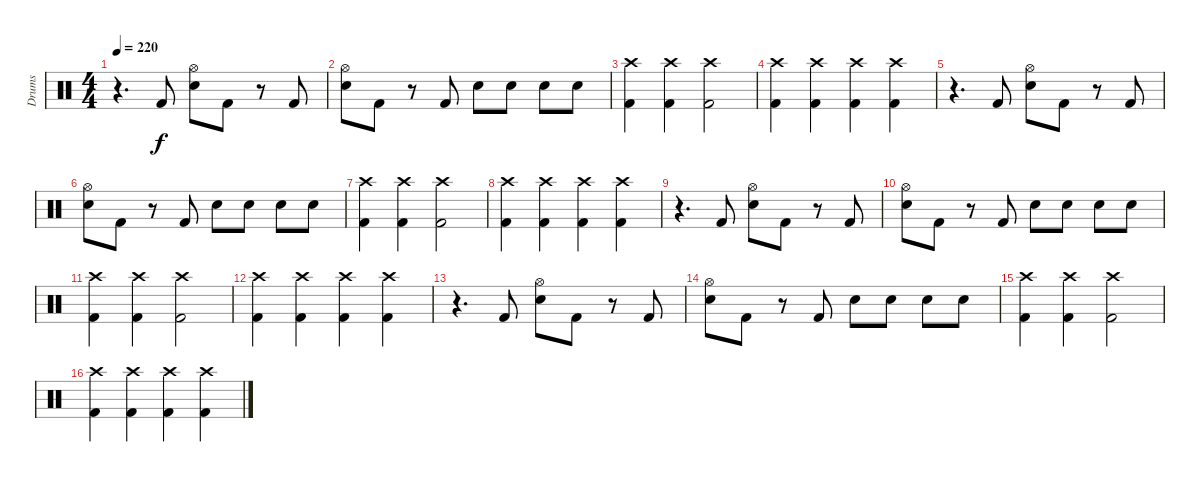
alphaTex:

\track ("Drums" "Drums") {instrument percussion}
\staff {score}
\articulation defaults
\ts (4 4)
\tempo 220
\clef neutral
\ks c
r.4{d dy f} "Kick (hit) 2".8 ("Hi-Hat (open)" "Electric Snare (hit)").8 "Kick (hit) 2".8 r.8 "Kick (hit) 2".8 |
("Hi-Hat (open)" "Electric Snare (hit)").8 "Kick (hit) 2".8 r.8 "Kick (hit) 2".8 "Electric Snare (hit)".8 "Electric Snare (hit)".8 "Electric Snare (hit)".8 "Electric Snare (hit)".8 |
("Crash high (hit)" "Kick (hit) 2").4 ("Crash high (hit)" "Kick (hit) 2").4 ("Crash high (hit)" "Kick (hit) 2").2 |
("Crash high (hit)" "Kick (hit) 2").4 ("Crash high (hit)" "Kick (hit) 2").4 ("Crash high (hit)" "Kick (hit) 2").4 ("Crash high (hit)" "Kick (hit) 2").4 |
r.4{d} "Kick (hit) 2".8 ("Hi-Hat (open)" "Electric Snare (hit)").8 "Kick (hit) 2".8 r.8 "Kick (hit) 2".8 |
("Hi-Hat (open)" "Electric Snare (hit)").8 "Kick (hit) 2".8 r.8 "Kick (hit) 2".8 "Electric Snare (hit)".8 "Electric Snare (hit)".8 "Electric Snare (hit)".8 "Electric Snare (hit)".8 |
("Crash high (hit)" "Kick (hit) 2").4 ("Crash high (hit)" "Kick (hit) 2").4 ("Crash high (hit)" "Kick (hit) 2").2 |
("Crash high (hit)" "Kick (hit) 2").4 ("Crash high (hit)" "Kick (hit) 2").4 ("Crash high (hit)" "Kick (hit) 2").4 ("Crash high (hit)" "Kick (hit) 2").4 |
r.4{d} "Kick (hit) 2".8 ("Hi-Hat (open)" "Electric Snare (hit)").8 "Kick (hit) 2".8 r.8 "Kick (hit) 2".8 |
("Hi-Hat (open)" "Electric Snare (hit)").8 "Kick (hit) 2".8 r.8 "Kick (hit) 2".8 "Electric Snare (hit)".8 "Electric Snare (hit)".8 "Electric Snare (hit)".8 "Electric Snare (hit)".8 |
("Crash high (hit)" "Kick (hit) 2").4 ("Crash high (hit)" "Kick (hit) 2").4 ("Crash high (hit)" "Kick (hit) 2").2 |
("Crash high (hit)" "Kick (hit) 2").4 ("Crash high (hit)" "Kick (hit) 2").4 ("Crash high (hit)" "Kick (hit) 2").4 ("Crash high (hit)" "Kick (hit) 2").4 |
r.4{d} "Kick (hit) 2".8 ("Hi-Hat (open)" "Electric Snare (hit)").8 "Kick (hit) 2".8 r.8 "Kick (hit) 2".8 |
("Hi-Hat (open)" "Electric Snare (hit)").8 "Kick (hit) 2".8 r.8 "Kick (hit) 2".8 "Electric Snare (hit)".8 "Electric Snare (hit)".8 "Electric Snare (hit)".8 "Electric Snare (hit)".8 |
("Crash high (hit)" "Kick (hit) 2").4 ("Crash high (hit)" "Kick (hit) 2").4 ("Crash high (hit)" "Kick (hit) 2").2 |
("Crash high (hit)" "Kick (hit) 2").4 ("Crash high (hit)" "Kick (hit) 2").4 ("Crash high (hit)" "Kick (hit) 2").4 ("Crash high (hit)" "Kick (hit) 2").4
